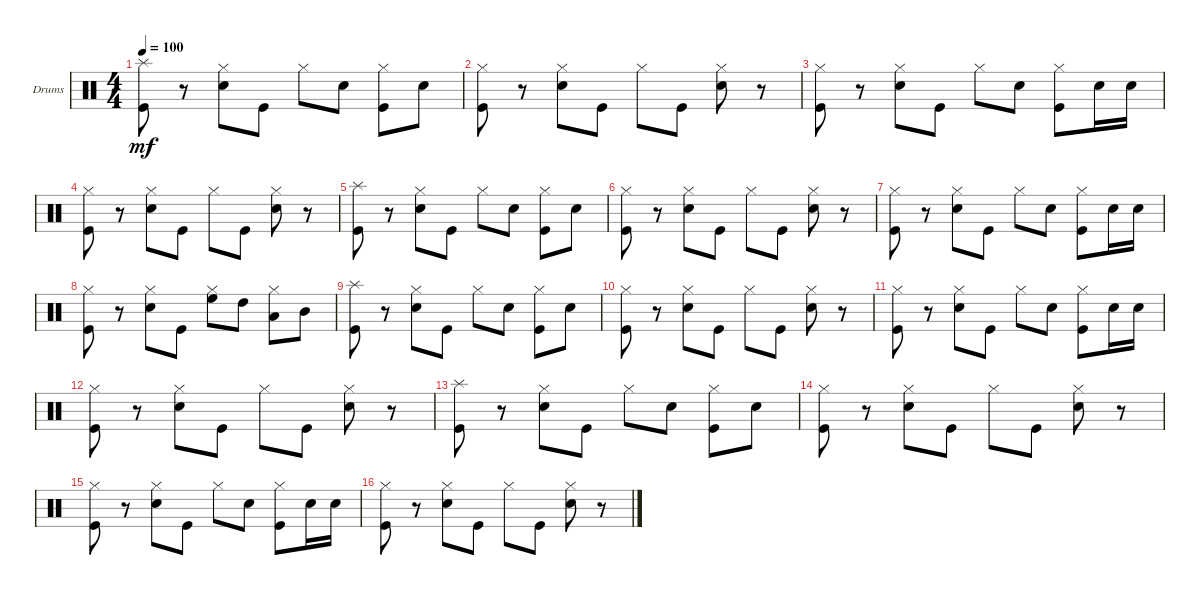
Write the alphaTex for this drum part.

\defaultSystemsLayout 4
\bracketExtendMode groupsimilarinstruments
\firstSystemTrackNameOrientation horizontal
\otherSystemsTrackNameOrientation horizontal
\track ("Drumkit" "Drums") {instrument percussion}
\staff {score}
\articulation defaults
\ts (4 4)
\tempo 100
\clef neutral
\ks c
("Kick (hit)" "Splash (hit)").8{dy mf} r.8 ("Snare (hit) 2" "Hi-Hat (closed)").8 "Kick (hit)".8 "Hi-Hat (closed)".8 "Snare (hit) 2".8 ("Kick (hit)" "Hi-Hat (closed)").8 "Snare (hit) 2".8 |
("Kick (hit)" "Hi-Hat (closed)").8 r.8 ("Snare (hit) 2" "Hi-Hat (closed)").8 "Kick (hit)".8 "Hi-Hat (closed)".8 "Kick (hit)".8 ("Snare (hit) 2" "Hi-Hat (closed)").8 r.8 |
("Kick (hit)" "Hi-Hat (closed)").8 r.8 ("Snare (hit) 2" "Hi-Hat (closed)").8 "Kick (hit)".8 "Hi-Hat (closed)".8 "Snare (hit) 2".8 ("Kick (hit)" "Hi-Hat (closed)").8 "Snare (hit) 2".16 "Snare (hit) 2".16 |
("Kick (hit)" "Hi-Hat (closed)").8 r.8 ("Snare (hit) 2" "Hi-Hat (closed)").8 "Kick (hit)".8 "Hi-Hat (closed)".8 "Kick (hit)".8 ("Snare (hit) 2" "Hi-Hat (closed)").8 r.8 |
("Kick (hit)" "Splash (hit)").8 r.8 ("Snare (hit) 2" "Hi-Hat (closed)").8 "Kick (hit)".8 "Hi-Hat (closed)".8 "Snare (hit) 2".8 ("Kick (hit)" "Hi-Hat (closed)").8 "Snare (hit) 2".8 |
("Kick (hit)" "Hi-Hat (closed)").8 r.8 ("Snare (hit) 2" "Hi-Hat (closed)").8 "Kick (hit)".8 "Hi-Hat (closed)".8 "Kick (hit)".8 ("Snare (hit) 2" "Hi-Hat (closed)").8 r.8 |
("Kick (hit)" "Hi-Hat (closed)").8 r.8 ("Snare (hit) 2" "Hi-Hat (closed)").8 "Kick (hit)".8 "Hi-Hat (closed)".8 "Snare (hit) 2".8 ("Kick (hit)" "Hi-Hat (closed)").8 "Snare (hit) 2".16 "Snare (hit) 2".16 |
("Kick (hit)" "Hi-Hat (closed)").8 r.8 ("Snare (hit) 2" "Hi-Hat (closed)").8 "Kick (hit)".8 ("Hi-Hat (closed)" "High Floor Tom (hit)").8 "High Tom (hit)".8 ("Hi-Hat (closed)" "Low Tom (hit)").8 "Mid Tom (hit)".8 |
("Kick (hit)" "Splash (hit)").8 r.8 ("Snare (hit) 2" "Hi-Hat (closed)").8 "Kick (hit)".8 "Hi-Hat (closed)".8 "Snare (hit) 2".8 ("Kick (hit)" "Hi-Hat (closed)").8 "Snare (hit) 2".8 |
("Kick (hit)" "Hi-Hat (closed)").8 r.8 ("Snare (hit) 2" "Hi-Hat (closed)").8 "Kick (hit)".8 "Hi-Hat (closed)".8 "Kick (hit)".8 ("Snare (hit) 2" "Hi-Hat (closed)").8 r.8 |
("Kick (hit)" "Hi-Hat (closed)").8 r.8 ("Snare (hit) 2" "Hi-Hat (closed)").8 "Kick (hit)".8 "Hi-Hat (closed)".8 "Snare (hit) 2".8 ("Kick (hit)" "Hi-Hat (closed)").8 "Snare (hit) 2".16 "Snare (hit) 2".16 |
("Kick (hit)" "Hi-Hat (closed)").8 r.8 ("Snare (hit) 2" "Hi-Hat (closed)").8 "Kick (hit)".8 "Hi-Hat (closed)".8 "Kick (hit)".8 ("Snare (hit) 2" "Hi-Hat (closed)").8 r.8 |
("Kick (hit)" "Splash (hit)").8 r.8 ("Snare (hit) 2" "Hi-Hat (closed)").8 "Kick (hit)".8 "Hi-Hat (closed)".8 "Snare (hit) 2".8 ("Kick (hit)" "Hi-Hat (closed)").8 "Snare (hit) 2".8 |
("Kick (hit)" "Hi-Hat (closed)").8 r.8 ("Snare (hit) 2" "Hi-Hat (closed)").8 "Kick (hit)".8 "Hi-Hat (closed)".8 "Kick (hit)".8 ("Snare (hit) 2" "Hi-Hat (closed)").8 r.8 |
("Kick (hit)" "Hi-Hat (closed)").8 r.8 ("Snare (hit) 2" "Hi-Hat (closed)").8 "Kick (hit)".8 "Hi-Hat (closed)".8 "Snare (hit) 2".8 ("Kick (hit)" "Hi-Hat (closed)").8 "Snare (hit) 2".16 "Snare (hit) 2".16 |
("Kick (hit)" "Hi-Hat (closed)").8 r.8 ("Snare (hit) 2" "Hi-Hat (closed)").8 "Kick (hit)".8 "Hi-Hat (closed)".8 "Kick (hit)".8 ("Snare (hit) 2" "Hi-Hat (closed)").8 r.8
